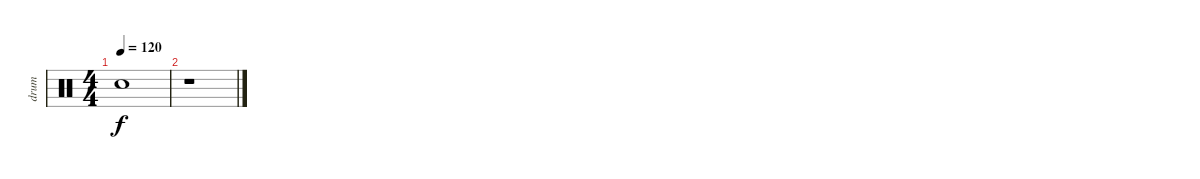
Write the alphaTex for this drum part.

\track ("drum" "drum") {instrument percussion}
\staff {score}
\articulation defaults
\ts (4 4)
\tempo 120
\clef neutral
\ks c "Snare (hit)"{t}.1{dy f}
|
r.1
